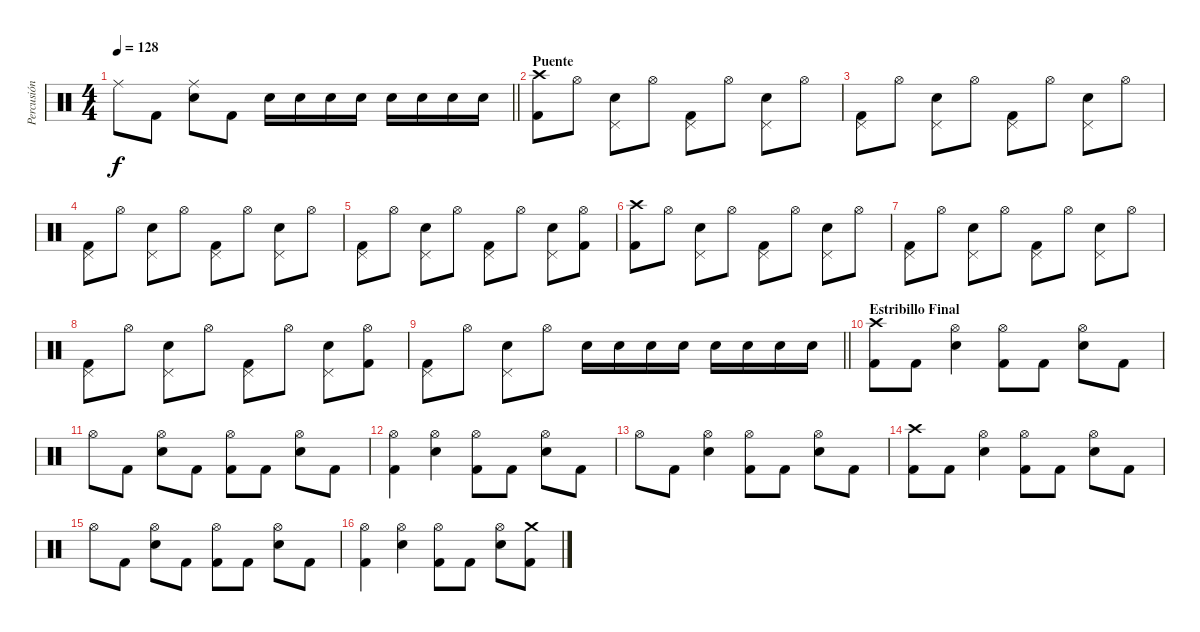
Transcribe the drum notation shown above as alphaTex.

\track ("Percusión" "Percusión") {instrument percussion}
\staff {score}
\articulation defaults
\ts (4 4)
\tempo 128
\clef neutral
\barLineRight lightlight
\ks c "Ride (middle)"{t}.8{dy f} "Kick (hit) 2".8
("Electric Snare (hit)" "Ride (middle)").8 "Kick (hit) 2".8 "Electric Snare (hit)".16 "Electric Snare (hit)".16 "Electric Snare (hit)".16 "Electric Snare (hit)".16 "Electric Snare (hit)".16 "Electric Snare (hit)".16 "Electric Snare (hit)".16 "Electric Snare (hit)".16 |
\section ("" "Puente")
("Crash high (hit)" "Kick (hit) 2").8 "Hi-Hat (open)".8 ("Electric Snare (hit)" "Pedal Hi-Hat (hit)").8 "Hi-Hat (open)".8 ("Pedal Hi-Hat (hit)" "Kick (hit) 2").8 "Hi-Hat (open)".8 ("Electric Snare (hit)" "Pedal Hi-Hat (hit)").8 "Hi-Hat (open)".8 |
("Pedal Hi-Hat (hit)" "Kick (hit) 2").8 "Hi-Hat (open)".8 ("Electric Snare (hit)" "Pedal Hi-Hat (hit)").8 "Hi-Hat (open)".8 ("Pedal Hi-Hat (hit)" "Kick (hit) 2").8 "Hi-Hat (open)".8 ("Electric Snare (hit)" "Pedal Hi-Hat (hit)").8 "Hi-Hat (open)".8 |
("Pedal Hi-Hat (hit)" "Kick (hit) 2").8 "Hi-Hat (open)".8 ("Electric Snare (hit)" "Pedal Hi-Hat (hit)").8 "Hi-Hat (open)".8 ("Pedal Hi-Hat (hit)" "Kick (hit) 2").8 "Hi-Hat (open)".8 ("Electric Snare (hit)" "Pedal Hi-Hat (hit)").8 "Hi-Hat (open)".8 |
("Pedal Hi-Hat (hit)" "Kick (hit) 2").8 "Hi-Hat (open)".8 ("Electric Snare (hit)" "Pedal Hi-Hat (hit)").8 "Hi-Hat (open)".8 ("Pedal Hi-Hat (hit)" "Kick (hit) 2").8 "Hi-Hat (open)".8 ("Electric Snare (hit)" "Pedal Hi-Hat (hit)").8 ("Hi-Hat (open)" "Kick (hit) 2").8 |
("Crash high (hit)" "Kick (hit) 2").8 "Hi-Hat (open)".8 ("Electric Snare (hit)" "Pedal Hi-Hat (hit)").8 "Hi-Hat (open)".8 ("Pedal Hi-Hat (hit)" "Kick (hit) 2").8 "Hi-Hat (open)".8 ("Electric Snare (hit)" "Pedal Hi-Hat (hit)").8 "Hi-Hat (open)".8 |
("Pedal Hi-Hat (hit)" "Kick (hit) 2").8 "Hi-Hat (open)".8 ("Electric Snare (hit)" "Pedal Hi-Hat (hit)").8 "Hi-Hat (open)".8 ("Pedal Hi-Hat (hit)" "Kick (hit) 2").8 "Hi-Hat (open)".8 ("Electric Snare (hit)" "Pedal Hi-Hat (hit)").8 "Hi-Hat (open)".8 |
("Pedal Hi-Hat (hit)" "Kick (hit) 2").8 "Hi-Hat (open)".8 ("Electric Snare (hit)" "Pedal Hi-Hat (hit)").8 "Hi-Hat (open)".8 ("Pedal Hi-Hat (hit)" "Kick (hit) 2").8 "Hi-Hat (open)".8 ("Electric Snare (hit)" "Pedal Hi-Hat (hit)").8 ("Hi-Hat (open)" "Kick (hit) 2").8 |
\barLineRight lightlight
("Pedal Hi-Hat (hit)" "Kick (hit) 2").8 "Hi-Hat (open)".8 ("Electric Snare (hit)" "Pedal Hi-Hat (hit)").8 "Hi-Hat (open)".8 "Electric Snare (hit)".16 "Electric Snare (hit)".16 "Electric Snare (hit)".16 "Electric Snare (hit)".16 "Electric Snare (hit)".16 "Electric Snare (hit)".16 "Electric Snare (hit)".16 "Electric Snare (hit)".16 |
\section ("" "Estribillo Final")
("Kick (hit) 2" "Crash high (hit)").8 "Kick (hit) 2".8 ("Electric Snare (hit)" "Hi-Hat (open)").4 ("Kick (hit) 2" "Hi-Hat (open)").8 "Kick (hit) 2".8 ("Electric Snare (hit)" "Hi-Hat (open)").8 "Kick (hit) 2".8 |
"Hi-Hat (open)".8 "Kick (hit) 2".8 ("Electric Snare (hit)" "Hi-Hat (open)").8 "Kick (hit) 2".8 ("Kick (hit) 2" "Hi-Hat (open)").8 "Kick (hit) 2".8 ("Electric Snare (hit)" "Hi-Hat (open)").8 "Kick (hit) 2".8 |
("Kick (hit) 2" "Hi-Hat (open)").4 ("Electric Snare (hit)" "Hi-Hat (open)").4 ("Kick (hit) 2" "Hi-Hat (open)").8 "Kick (hit) 2".8 ("Electric Snare (hit)" "Hi-Hat (open)").8 "Kick (hit) 2".8 |
"Hi-Hat (open)".8 "Kick (hit) 2".8 ("Electric Snare (hit)" "Hi-Hat (open)").4 ("Kick (hit) 2" "Hi-Hat (open)").8 "Kick (hit) 2".8 ("Electric Snare (hit)" "Hi-Hat (open)").8 "Kick (hit) 2".8 |
("Kick (hit) 2" "Crash high (hit)").8 "Kick (hit) 2".8 ("Electric Snare (hit)" "Hi-Hat (open)").4 ("Kick (hit) 2" "Hi-Hat (open)").8 "Kick (hit) 2".8 ("Electric Snare (hit)" "Hi-Hat (open)").8 "Kick (hit) 2".8 |
"Hi-Hat (open)".8 "Kick (hit) 2".8 ("Electric Snare (hit)" "Hi-Hat (open)").8 "Kick (hit) 2".8 ("Kick (hit) 2" "Hi-Hat (open)").8 "Kick (hit) 2".8 ("Electric Snare (hit)" "Hi-Hat (open)").8 "Kick (hit) 2".8 |
("Kick (hit) 2" "Hi-Hat (open)").4 ("Electric Snare (hit)" "Hi-Hat (open)").4 ("Kick (hit) 2" "Hi-Hat (open)").8 "Kick (hit) 2".8 ("Electric Snare (hit)" "Hi-Hat (open)").8 ("Kick (hit) 2" "Crash medium (hit)").8
